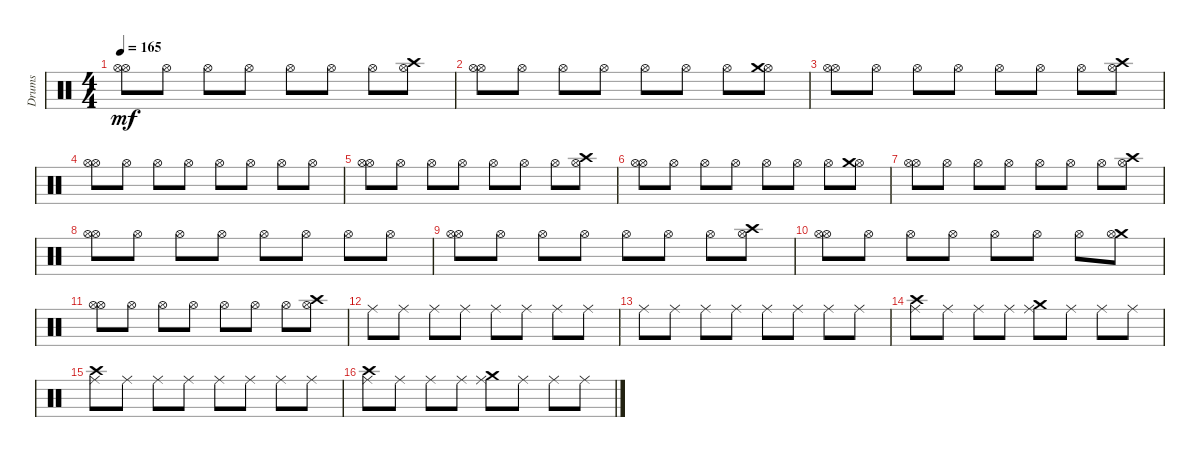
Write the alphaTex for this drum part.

\track ("Drums" "Drums") {instrument percussion}
\staff {score}
\articulation defaults
\ts (4 4)
\tempo 165
\clef neutral
\ks c
("Hi-Hat (open)" "Hi-Hat (open)").8{dy mf} "Hi-Hat (open)".8 "Hi-Hat (open)".8 "Hi-Hat (open)".8 "Hi-Hat (open)".8 "Hi-Hat (open)".8 "Hi-Hat (open)".8 ("Hi-Hat (open)" "Crash high (hit)").8 |
("Hi-Hat (open)" "Hi-Hat (open)").8 "Hi-Hat (open)".8 "Hi-Hat (open)".8 "Hi-Hat (open)".8 "Hi-Hat (open)".8 "Hi-Hat (open)".8 "Hi-Hat (open)".8 ("Hi-Hat (open)" "Crash medium (hit)").8 |
("Hi-Hat (open)" "Hi-Hat (open)").8 "Hi-Hat (open)".8 "Hi-Hat (open)".8 "Hi-Hat (open)".8 "Hi-Hat (open)".8 "Hi-Hat (open)".8 "Hi-Hat (open)".8 ("Hi-Hat (open)" "Crash high (hit)").8 |
("Hi-Hat (open)" "Hi-Hat (open)").8 "Hi-Hat (open)".8 "Hi-Hat (open)".8 "Hi-Hat (open)".8 "Hi-Hat (open)".8 "Hi-Hat (open)".8 "Hi-Hat (open)".8 "Hi-Hat (open)".8 |
("Hi-Hat (open)" "Hi-Hat (open)").8 "Hi-Hat (open)".8 "Hi-Hat (open)".8 "Hi-Hat (open)".8 "Hi-Hat (open)".8 "Hi-Hat (open)".8 "Hi-Hat (open)".8 ("Hi-Hat (open)" "Crash high (hit)").8 |
("Hi-Hat (open)" "Hi-Hat (open)").8 "Hi-Hat (open)".8 "Hi-Hat (open)".8 "Hi-Hat (open)".8 "Hi-Hat (open)".8 "Hi-Hat (open)".8 "Hi-Hat (open)".8 ("Hi-Hat (open)" "Crash medium (hit)").8 |
("Hi-Hat (open)" "Hi-Hat (open)").8 "Hi-Hat (open)".8 "Hi-Hat (open)".8 "Hi-Hat (open)".8 "Hi-Hat (open)".8 "Hi-Hat (open)".8 "Hi-Hat (open)".8 ("Hi-Hat (open)" "Crash high (hit)").8 |
("Hi-Hat (open)" "Hi-Hat (open)").8 "Hi-Hat (open)".8 "Hi-Hat (open)".8 "Hi-Hat (open)".8 "Hi-Hat (open)".8 "Hi-Hat (open)".8 "Hi-Hat (open)".8 "Hi-Hat (open)".8 |
("Hi-Hat (open)" "Hi-Hat (open)").8 "Hi-Hat (open)".8 "Hi-Hat (open)".8 "Hi-Hat (open)".8 "Hi-Hat (open)".8 "Hi-Hat (open)".8 "Hi-Hat (open)".8 ("Crash high (hit)" "Hi-Hat (open)").8 |
("Hi-Hat (open)" "Hi-Hat (open)").8 "Hi-Hat (open)".8 "Hi-Hat (open)".8 "Hi-Hat (open)".8 "Hi-Hat (open)".8 "Hi-Hat (open)".8 "Hi-Hat (open)".8 ("Crash medium (hit)" "Hi-Hat (open)").8 |
("Hi-Hat (open)" "Hi-Hat (open)").8 "Hi-Hat (open)".8 "Hi-Hat (open)".8 "Hi-Hat (open)".8 "Hi-Hat (open)".8 "Hi-Hat (open)".8 "Hi-Hat (open)".8 ("Crash high (hit)" "Hi-Hat (open)").8 |
"Ride (middle)".8 "Ride (middle)".8 "Ride (middle)".8 "Ride (middle)".8 "Ride (middle)".8 "Ride (middle)".8 "Ride (middle)".8 "Ride (middle)".8 |
"Ride (middle)".8 "Ride (middle)".8 "Ride (middle)".8 "Ride (middle)".8 "Ride (middle)".8 "Ride (middle)".8 "Ride (middle)".8 "Ride (middle)".8 |
("Crash high (hit)" "Ride (middle)").8 "Ride (middle)".8 "Ride (middle)".8 "Ride (middle)".8 ("Crash medium (hit)" "Ride (middle)").8 "Ride (middle)".8 "Ride (middle)".8 "Ride (middle)".8 |
("Crash high (hit)" "Ride (middle)").8 "Ride (middle)".8 "Ride (middle)".8 "Ride (middle)".8 "Ride (middle)".8 "Ride (middle)".8 "Ride (middle)".8 "Ride (middle)".8 |
("Crash high (hit)" "Ride (middle)").8 "Ride (middle)".8 "Ride (middle)".8 "Ride (middle)".8 ("Crash medium (hit)" "Ride (middle)").8 "Ride (middle)".8 "Ride (middle)".8 "Ride (middle)".8
